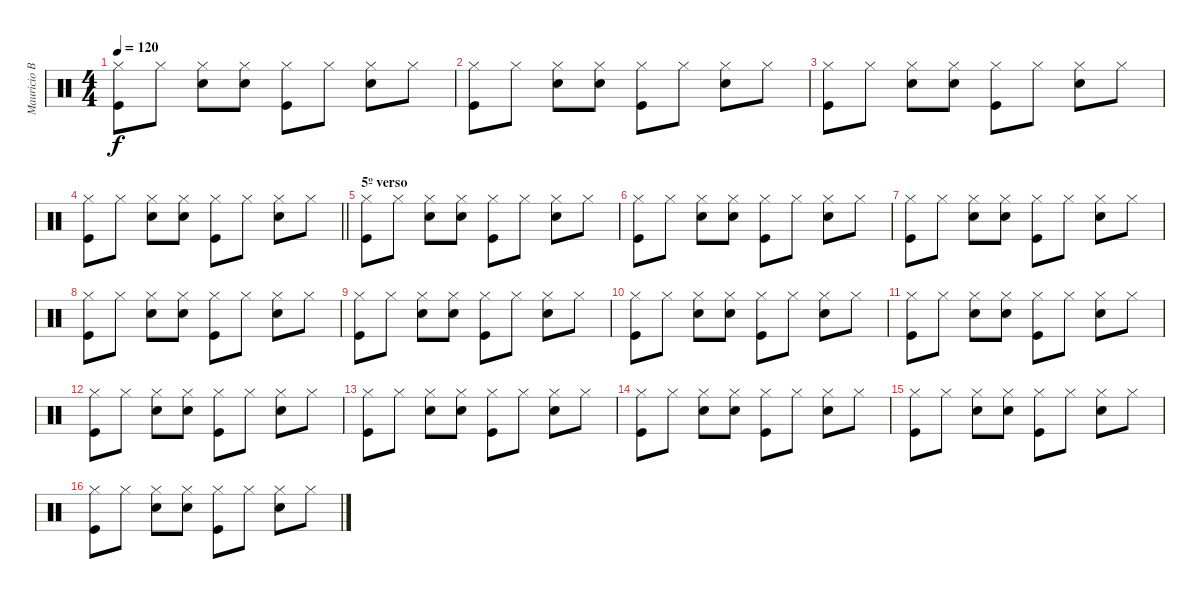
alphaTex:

\track ("Mauricio Basualto" "Mauricio B") {instrument percussion}
\staff {score}
\articulation defaults
\ts (4 4)
\tempo 120
\clef neutral
\ks c
("Hi-Hat (closed)" "Kick (hit)").8{dy f} "Hi-Hat (closed)".8 ("Hi-Hat (closed)" "Electric Snare (hit)").8 ("Hi-Hat (closed)" "Electric Snare (hit)").8 ("Hi-Hat (closed)" "Kick (hit)").8 "Hi-Hat (closed)".8 ("Hi-Hat (closed)" "Electric Snare (hit)").8 "Hi-Hat (closed)".8 |
("Hi-Hat (closed)" "Kick (hit)").8 "Hi-Hat (closed)".8 ("Hi-Hat (closed)" "Electric Snare (hit)").8 ("Hi-Hat (closed)" "Electric Snare (hit)").8 ("Hi-Hat (closed)" "Kick (hit)").8 "Hi-Hat (closed)".8 ("Hi-Hat (closed)" "Electric Snare (hit)").8 "Hi-Hat (closed)".8 |
("Hi-Hat (closed)" "Kick (hit)").8 "Hi-Hat (closed)".8 ("Hi-Hat (closed)" "Electric Snare (hit)").8 ("Hi-Hat (closed)" "Electric Snare (hit)").8 ("Hi-Hat (closed)" "Kick (hit)").8 "Hi-Hat (closed)".8 ("Hi-Hat (closed)" "Electric Snare (hit)").8 "Hi-Hat (closed)".8 |
\barLineRight lightlight
("Hi-Hat (closed)" "Kick (hit)").8 "Hi-Hat (closed)".8 ("Hi-Hat (closed)" "Electric Snare (hit)").8 ("Hi-Hat (closed)" "Electric Snare (hit)").8 ("Hi-Hat (closed)" "Kick (hit)").8 "Hi-Hat (closed)".8 ("Hi-Hat (closed)" "Electric Snare (hit)").8 "Hi-Hat (closed)".8 |
\section ("" "5º verso")
("Hi-Hat (closed)" "Kick (hit)").8 "Hi-Hat (closed)".8 ("Hi-Hat (closed)" "Electric Snare (hit)").8 ("Hi-Hat (closed)" "Electric Snare (hit)").8 ("Hi-Hat (closed)" "Kick (hit)").8 "Hi-Hat (closed)".8 ("Hi-Hat (closed)" "Electric Snare (hit)").8 "Hi-Hat (closed)".8 |
("Hi-Hat (closed)" "Kick (hit)").8 "Hi-Hat (closed)".8 ("Hi-Hat (closed)" "Electric Snare (hit)").8 ("Hi-Hat (closed)" "Electric Snare (hit)").8 ("Hi-Hat (closed)" "Kick (hit)").8 "Hi-Hat (closed)".8 ("Hi-Hat (closed)" "Electric Snare (hit)").8 "Hi-Hat (closed)".8 |
("Hi-Hat (closed)" "Kick (hit)").8 "Hi-Hat (closed)".8 ("Hi-Hat (closed)" "Electric Snare (hit)").8 ("Hi-Hat (closed)" "Electric Snare (hit)").8 ("Hi-Hat (closed)" "Kick (hit)").8 "Hi-Hat (closed)".8 ("Hi-Hat (closed)" "Electric Snare (hit)").8 "Hi-Hat (closed)".8 |
("Hi-Hat (closed)" "Kick (hit)").8 "Hi-Hat (closed)".8 ("Hi-Hat (closed)" "Electric Snare (hit)").8 ("Hi-Hat (closed)" "Electric Snare (hit)").8 ("Hi-Hat (closed)" "Kick (hit)").8 "Hi-Hat (closed)".8 ("Hi-Hat (closed)" "Electric Snare (hit)").8 "Hi-Hat (closed)".8 |
("Hi-Hat (closed)" "Kick (hit)").8 "Hi-Hat (closed)".8 ("Hi-Hat (closed)" "Electric Snare (hit)").8 ("Hi-Hat (closed)" "Electric Snare (hit)").8 ("Hi-Hat (closed)" "Kick (hit)").8 "Hi-Hat (closed)".8 ("Hi-Hat (closed)" "Electric Snare (hit)").8 "Hi-Hat (closed)".8 |
("Hi-Hat (closed)" "Kick (hit)").8 "Hi-Hat (closed)".8 ("Hi-Hat (closed)" "Electric Snare (hit)").8 ("Hi-Hat (closed)" "Electric Snare (hit)").8 ("Hi-Hat (closed)" "Kick (hit)").8 "Hi-Hat (closed)".8 ("Hi-Hat (closed)" "Electric Snare (hit)").8 "Hi-Hat (closed)".8 |
("Hi-Hat (closed)" "Kick (hit)").8 "Hi-Hat (closed)".8 ("Hi-Hat (closed)" "Electric Snare (hit)").8 ("Hi-Hat (closed)" "Electric Snare (hit)").8 ("Hi-Hat (closed)" "Kick (hit)").8 "Hi-Hat (closed)".8 ("Hi-Hat (closed)" "Electric Snare (hit)").8 "Hi-Hat (closed)".8 |
("Hi-Hat (closed)" "Kick (hit)").8 "Hi-Hat (closed)".8 ("Hi-Hat (closed)" "Electric Snare (hit)").8 ("Hi-Hat (closed)" "Electric Snare (hit)").8 ("Hi-Hat (closed)" "Kick (hit)").8 "Hi-Hat (closed)".8 ("Hi-Hat (closed)" "Electric Snare (hit)").8 "Hi-Hat (closed)".8 |
("Hi-Hat (closed)" "Kick (hit)").8 "Hi-Hat (closed)".8 ("Hi-Hat (closed)" "Electric Snare (hit)").8 ("Hi-Hat (closed)" "Electric Snare (hit)").8 ("Hi-Hat (closed)" "Kick (hit)").8 "Hi-Hat (closed)".8 ("Hi-Hat (closed)" "Electric Snare (hit)").8 "Hi-Hat (closed)".8 |
("Hi-Hat (closed)" "Kick (hit)").8 "Hi-Hat (closed)".8 ("Hi-Hat (closed)" "Electric Snare (hit)").8 ("Hi-Hat (closed)" "Electric Snare (hit)").8 ("Hi-Hat (closed)" "Kick (hit)").8 "Hi-Hat (closed)".8 ("Hi-Hat (closed)" "Electric Snare (hit)").8 "Hi-Hat (closed)".8 |
("Hi-Hat (closed)" "Kick (hit)").8 "Hi-Hat (closed)".8 ("Hi-Hat (closed)" "Electric Snare (hit)").8 ("Hi-Hat (closed)" "Electric Snare (hit)").8 ("Hi-Hat (closed)" "Kick (hit)").8 "Hi-Hat (closed)".8 ("Hi-Hat (closed)" "Electric Snare (hit)").8 "Hi-Hat (closed)".8 |
("Hi-Hat (closed)" "Kick (hit)").8 "Hi-Hat (closed)".8 ("Hi-Hat (closed)" "Electric Snare (hit)").8 ("Hi-Hat (closed)" "Electric Snare (hit)").8 ("Hi-Hat (closed)" "Kick (hit)").8 "Hi-Hat (closed)".8 ("Hi-Hat (closed)" "Electric Snare (hit)").8 "Hi-Hat (closed)".8
